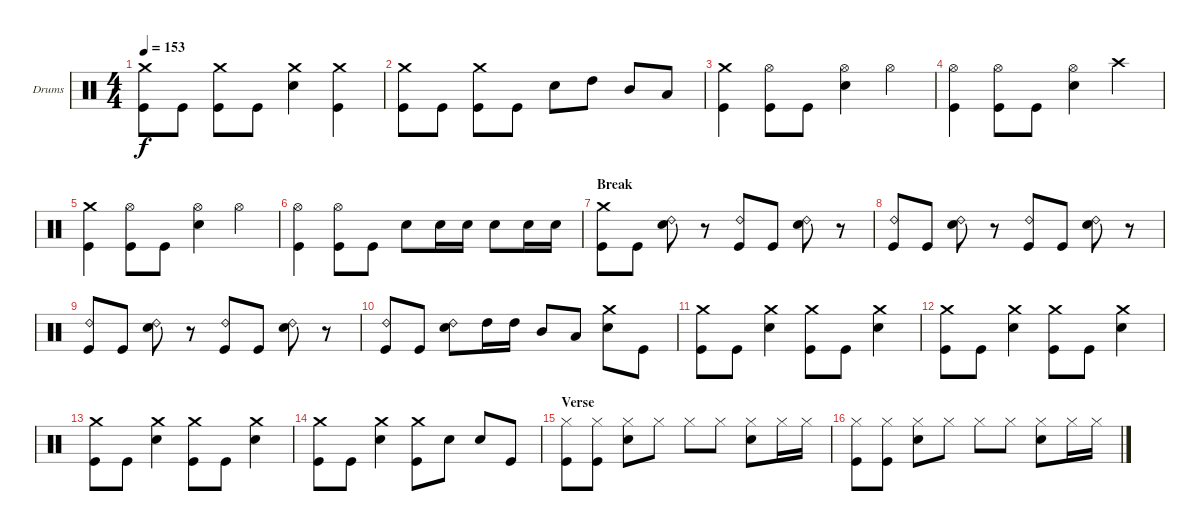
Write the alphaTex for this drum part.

\bracketExtendMode groupsimilarinstruments
\firstSystemTrackNameOrientation horizontal
\otherSystemsTrackNameOrientation horizontal
\track ("Drumkit" "Drums") {instrument percussion}
\staff {score}
\articulation defaults
\ts (4 4)
\tempo 153
\clef neutral
\ks c
("Crash medium (hit)" "Kick (hit)").8{dy f} "Kick (hit)".8 ("Crash medium (hit)" "Kick (hit)").8 "Kick (hit)".8 ("Crash medium (hit)" "Snare (hit) 2").4 ("Crash medium (hit)" "Kick (hit)").4 |
("Crash medium (hit)" "Kick (hit)").8 "Kick (hit)".8 ("Crash medium (hit)" "Kick (hit)").8 "Kick (hit)".8 "Snare (hit) 2".8 "High Tom (hit)".8 "Mid Tom (hit)".8 "Low Tom (hit)".8 |
("Crash medium (hit)" "Kick (hit)").4 ("Hi-Hat (open)" "Kick (hit)").8 "Kick (hit)".8 ("Hi-Hat (open)" "Snare (hit) 2").4 "Hi-Hat (open)".4 |
("Hi-Hat (open)" "Kick (hit)").4 ("Hi-Hat (open)" "Kick (hit)").8 "Kick (hit)".8 ("Hi-Hat (open)" "Snare (hit) 2").4 "Crash high (hit)".4 |
("Crash medium (hit)" "Kick (hit)").4 ("Hi-Hat (open)" "Kick (hit)").8 "Kick (hit)".8 ("Hi-Hat (open)" "Snare (hit) 2").4 "Hi-Hat (open)".4 |
("Hi-Hat (open)" "Kick (hit)").4 ("Hi-Hat (open)" "Kick (hit)").8 "Kick (hit)".8 "Snare (hit) 2".8 "Snare (hit) 2".16 "Snare (hit) 2".16 "Snare (hit) 2".8 "Snare (hit) 2".16 "Snare (hit) 2".16 |
\section ("" "Break")
("Crash medium (hit)" "Kick (hit)").8 "Kick (hit)".8 ("Ride (bell) 2" "Snare (hit) 2").8 r.8 ("Ride (bell) 2" "Kick (hit)").8 "Kick (hit)".8 ("Ride (bell) 2" "Snare (hit) 2").8 r.8 |
("Ride (bell) 2" "Kick (hit)").8 "Kick (hit)".8 ("Ride (bell) 2" "Snare (hit) 2").8 r.8 ("Ride (bell) 2" "Kick (hit)").8 "Kick (hit)".8 ("Ride (bell) 2" "Snare (hit) 2").8 r.8 |
("Ride (bell) 2" "Kick (hit)").8 "Kick (hit)".8 ("Ride (bell) 2" "Snare (hit) 2").8 r.8 ("Ride (bell) 2" "Kick (hit)").8 "Kick (hit)".8 ("Ride (bell) 2" "Snare (hit) 2").8 r.8 |
("Ride (bell) 2" "Kick (hit)").8 "Kick (hit)".8 ("Ride (bell) 2" "Snare (hit) 2").8 "High Tom (hit)".16 "High Tom (hit)".16 "Mid Tom (hit)".8 "Low Tom (hit)".8 ("Crash medium (hit)" "Snare (hit) 2").8 "Kick (hit)".8 |
("Crash medium (hit)" "Kick (hit)").8 "Kick (hit)".8 ("Crash medium (hit)" "Snare (hit) 2").4 ("Crash medium (hit)" "Kick (hit)").8 "Kick (hit)".8 ("Crash medium (hit)" "Snare (hit) 2").4 |
("Crash medium (hit)" "Kick (hit)").8 "Kick (hit)".8 ("Crash medium (hit)" "Snare (hit) 2").4 ("Crash medium (hit)" "Kick (hit)").8 "Kick (hit)".8 ("Crash medium (hit)" "Snare (hit) 2").4 |
("Crash medium (hit)" "Kick (hit)").8 "Kick (hit)".8 ("Crash medium (hit)" "Snare (hit) 2").4 ("Crash medium (hit)" "Kick (hit)").8 "Kick (hit)".8 ("Crash medium (hit)" "Snare (hit) 2").4 |
("Crash medium (hit)" "Kick (hit)").8 "Kick (hit)".8 ("Crash medium (hit)" "Snare (hit) 2").4 ("Crash medium (hit)" "Kick (hit)").8 "Snare (hit) 2".8 "Snare (hit) 2".8 "Kick (hit)".8 |
\section ("" "Verse ")
("Hi-Hat (closed)" "Kick (hit)").8 ("Hi-Hat (closed)" "Kick (hit)").8 ("Hi-Hat (closed)" "Snare (hit) 2").8 "Hi-Hat (closed)".8 "Hi-Hat (closed)".8 "Hi-Hat (closed)".8 ("Hi-Hat (closed)" "Snare (hit) 2").8 "Hi-Hat (closed)".16 "Hi-Hat (closed)".16 |
("Hi-Hat (closed)" "Kick (hit)").8 ("Hi-Hat (closed)" "Kick (hit)").8 ("Hi-Hat (closed)" "Snare (hit) 2").8 "Hi-Hat (closed)".8 "Hi-Hat (closed)".8 "Hi-Hat (closed)".8 ("Hi-Hat (closed)" "Snare (hit) 2").8 "Hi-Hat (closed)".16 "Hi-Hat (closed)".16
